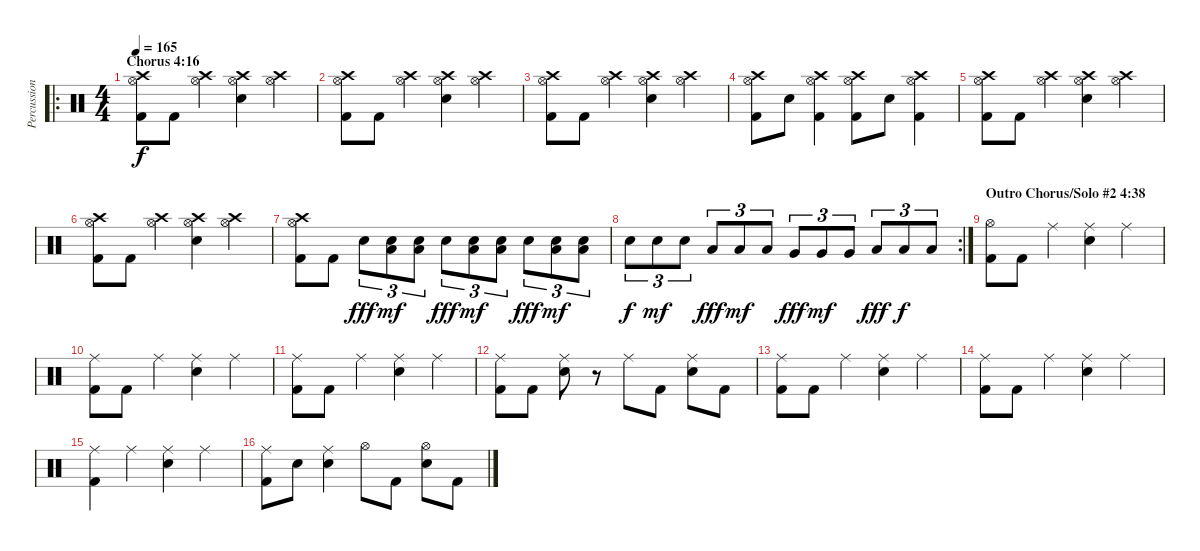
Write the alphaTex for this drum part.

\track ("Percussion" "Percussion") {instrument percussion}
\staff {score}
\articulation defaults
\ro
\ts (4 4)
\section ("" "Chorus 4:16")
\tempo 165
\clef neutral
\ks c
("Hi-Hat (open)" "Crash high (hit)" "Kick (hit) 2").8{dy f} "Kick (hit) 2".8 ("Hi-Hat (open)" "Crash high (hit)").4 ("Hi-Hat (open)" "Crash high (hit)" "Electric Snare (hit)").4 ("Hi-Hat (open)" "Crash high (hit)").4 |
("Hi-Hat (open)" "Crash high (hit)" "Kick (hit) 2").8 "Kick (hit) 2".8 ("Hi-Hat (open)" "Crash high (hit)").4 ("Hi-Hat (open)" "Crash high (hit)" "Electric Snare (hit)").4 ("Hi-Hat (open)" "Crash high (hit)").4 |
("Hi-Hat (open)" "Crash high (hit)" "Kick (hit) 2").8 "Kick (hit) 2".8 ("Hi-Hat (open)" "Crash high (hit)").4 ("Hi-Hat (open)" "Crash high (hit)" "Electric Snare (hit)").4 ("Hi-Hat (open)" "Crash high (hit)").4 |
("Hi-Hat (open)" "Crash high (hit)" "Kick (hit) 2").8 "Electric Snare (hit)".8 ("Hi-Hat (open)" "Crash high (hit)" "Kick (hit) 2").4 ("Hi-Hat (open)" "Crash high (hit)" "Kick (hit) 2").8 "Electric Snare (hit)".8 ("Hi-Hat (open)" "Crash high (hit)" "Kick (hit) 2").4 |
("Hi-Hat (open)" "Crash high (hit)" "Kick (hit) 2").8 "Kick (hit) 2".8 ("Hi-Hat (open)" "Crash high (hit)").4 ("Hi-Hat (open)" "Crash high (hit)" "Electric Snare (hit)").4 ("Hi-Hat (open)" "Crash high (hit)").4 |
("Hi-Hat (open)" "Crash high (hit)" "Kick (hit) 2").8 "Kick (hit) 2".8 ("Hi-Hat (open)" "Crash high (hit)").4 ("Hi-Hat (open)" "Crash high (hit)" "Electric Snare (hit)").4 ("Hi-Hat (open)" "Crash high (hit)").4 |
("Hi-Hat (open)" "Crash high (hit)" "Kick (hit) 2").8 "Kick (hit) 2".8 "Electric Snare (hit)".8{tu (3 2) dy fff} ("Electric Snare (hit)" "Low Tom (hit)").8{tu (3 2) dy mf} ("Electric Snare (hit)" "Low Tom (hit)").8{tu (3 2)} "Electric Snare (hit)".8{tu (3 2) dy fff} ("Electric Snare (hit)" "Low Tom (hit)").8{tu (3 2) dy mf} ("Electric Snare (hit)" "Low Tom (hit)").8{tu (3 2)} "Electric Snare (hit)".8{tu (3 2) dy fff} ("Electric Snare (hit)" "Low Tom (hit)").8{tu (3 2) dy mf} ("Electric Snare (hit)" "Low Tom (hit)").8{tu (3 2)} |
\rc 2 "Electric Snare (hit)".8{tu (3 2) dy f} "Electric Snare (hit)".8{tu (3 2) dy mf} "Electric Snare (hit)".8{tu (3 2)} "Low Tom (hit)".8{tu (3 2) dy fff} "Low Tom (hit)".8{tu (3 2) dy mf} "Low Tom (hit)".8{tu (3 2)} "Very Low Tom (hit)".8{tu (3 2) dy fff} "Very Low Tom (hit)".8{tu (3 2) dy mf} "Very Low Tom (hit)".8{tu (3 2)} "Low Floor Tom (hit)".8{tu (3 2) dy fff} "Low Floor Tom (hit)".8{tu (3 2) dy f} "Low Floor Tom (hit)".8{tu (3 2)}
|
\section ("" "Outro Chorus/Solo #2 4:38")
("Hi-Hat (open)" "Kick (hit) 2").8 "Kick (hit) 2".8 "Ride (middle)".4 ("Ride (middle)" "Electric Snare (hit)").4 "Ride (middle)".4 |
("Ride (middle)" "Kick (hit) 2").8 "Kick (hit) 2".8 "Ride (middle)".4 ("Ride (middle)" "Electric Snare (hit)").4 "Ride (middle)".4 |
("Ride (middle)" "Kick (hit) 2").8 "Kick (hit) 2".8 "Ride (middle)".4 ("Ride (middle)" "Electric Snare (hit)").4 "Ride (middle)".4 |
("Ride (middle)" "Kick (hit) 2").8 "Kick (hit) 2".8 ("Ride (middle)" "Electric Snare (hit)").8 r.8 "Ride (middle)".8 "Kick (hit) 2".8 ("Ride (middle)" "Electric Snare (hit)").8 "Kick (hit) 2".8 |
("Ride (middle)" "Kick (hit) 2").8 "Kick (hit) 2".8 "Ride (middle)".4 ("Ride (middle)" "Electric Snare (hit)").4 "Ride (middle)".4 |
("Ride (middle)" "Kick (hit) 2").8 "Kick (hit) 2".8 "Ride (middle)".4 ("Ride (middle)" "Electric Snare (hit)").4 "Ride (middle)".4 |
("Ride (middle)" "Kick (hit) 2").4 "Ride (middle)".4 ("Ride (middle)" "Electric Snare (hit)").4 "Ride (middle)".4 |
("Ride (middle)" "Kick (hit) 2").8 "Electric Snare (hit)".8 ("Ride (middle)" "Electric Snare (hit)").4 "Hi-Hat (open)".8 "Kick (hit) 2".8 ("Hi-Hat (open)" "Electric Snare (hit)").8 "Kick (hit) 2".8
